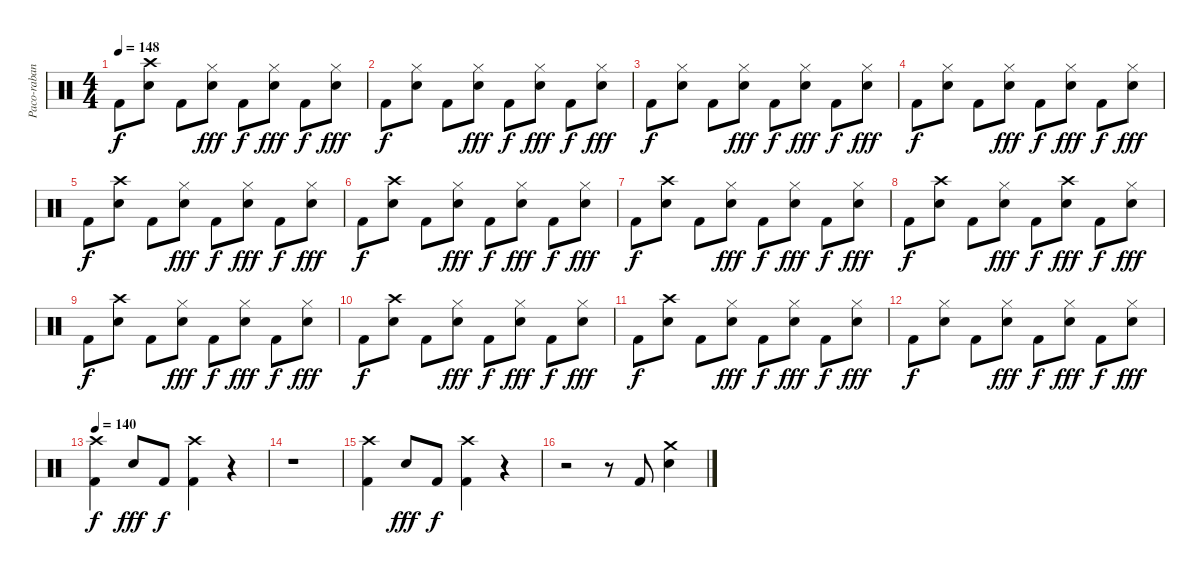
\track ("Paco-rabane" "Paco-raban") {instrument percussion}
\staff {score}
\articulation defaults
\ts (4 4)
\tempo 148
\clef neutral
\ks c "Kick (hit) 2".8{dy f}
("Crash high (hit)" "Snare (hit) 2").8 "Kick (hit) 2".8 ("Hi-Hat (closed)" "Snare (hit) 2").8{dy fff} "Kick (hit) 2".8{dy f} ("Hi-Hat (closed)" "Snare (hit) 2").8{dy fff} "Kick (hit) 2".8{dy f} ("Hi-Hat (closed)" "Snare (hit) 2").8{dy fff} |
"Kick (hit) 2".8{dy f} ("Hi-Hat (closed)" "Snare (hit) 2").8 "Kick (hit) 2".8 ("Hi-Hat (closed)" "Snare (hit) 2").8{dy fff} "Kick (hit) 2".8{dy f} ("Hi-Hat (closed)" "Snare (hit) 2").8{dy fff} "Kick (hit) 2".8{dy f} ("Hi-Hat (closed)" "Snare (hit) 2").8{dy fff} |
"Kick (hit) 2".8{dy f} ("Hi-Hat (closed)" "Snare (hit) 2").8 "Kick (hit) 2".8 ("Hi-Hat (closed)" "Snare (hit) 2").8{dy fff} "Kick (hit) 2".8{dy f} ("Hi-Hat (closed)" "Snare (hit) 2").8{dy fff} "Kick (hit) 2".8{dy f} ("Hi-Hat (closed)" "Snare (hit) 2").8{dy fff} |
"Kick (hit) 2".8{dy f} ("Hi-Hat (closed)" "Snare (hit) 2").8 "Kick (hit) 2".8 ("Hi-Hat (closed)" "Snare (hit) 2").8{dy fff} "Kick (hit) 2".8{dy f} ("Hi-Hat (closed)" "Snare (hit) 2").8{dy fff} "Kick (hit) 2".8{dy f} ("Hi-Hat (closed)" "Snare (hit) 2").8{dy fff} |
"Kick (hit) 2".8{dy f} ("Crash high (hit)" "Snare (hit) 2").8 "Kick (hit) 2".8 ("Hi-Hat (closed)" "Snare (hit) 2").8{dy fff} "Kick (hit) 2".8{dy f} ("Hi-Hat (closed)" "Snare (hit) 2").8{dy fff} "Kick (hit) 2".8{dy f} ("Hi-Hat (closed)" "Snare (hit) 2").8{dy fff} |
"Kick (hit) 2".8{dy f} ("Crash high (hit)" "Snare (hit) 2").8 "Kick (hit) 2".8 ("Hi-Hat (closed)" "Snare (hit) 2").8{dy fff} "Kick (hit) 2".8{dy f} ("Hi-Hat (closed)" "Snare (hit) 2").8{dy fff} "Kick (hit) 2".8{dy f} ("Hi-Hat (closed)" "Snare (hit) 2").8{dy fff} |
"Kick (hit) 2".8{dy f} ("Crash high (hit)" "Snare (hit) 2").8 "Kick (hit) 2".8 ("Hi-Hat (closed)" "Snare (hit) 2").8{dy fff} "Kick (hit) 2".8{dy f} ("Hi-Hat (closed)" "Snare (hit) 2").8{dy fff} "Kick (hit) 2".8{dy f} ("Hi-Hat (closed)" "Snare (hit) 2").8{dy fff} |
"Kick (hit) 2".8{dy f} ("Crash high (hit)" "Snare (hit) 2").8 "Kick (hit) 2".8 ("Hi-Hat (closed)" "Snare (hit) 2").8{dy fff} "Kick (hit) 2".8{dy f} ("Crash high (hit)" "Snare (hit) 2").8{dy fff} "Kick (hit) 2".8{dy f} ("Hi-Hat (closed)" "Snare (hit) 2").8{dy fff} |
"Kick (hit) 2".8{dy f} ("Crash high (hit)" "Snare (hit) 2").8 "Kick (hit) 2".8 ("Hi-Hat (closed)" "Snare (hit) 2").8{dy fff} "Kick (hit) 2".8{dy f} ("Hi-Hat (closed)" "Snare (hit) 2").8{dy fff} "Kick (hit) 2".8{dy f} ("Hi-Hat (closed)" "Snare (hit) 2").8{dy fff} |
"Kick (hit) 2".8{dy f} ("Crash high (hit)" "Snare (hit) 2").8 "Kick (hit) 2".8 ("Hi-Hat (closed)" "Snare (hit) 2").8{dy fff} "Kick (hit) 2".8{dy f} ("Hi-Hat (closed)" "Snare (hit) 2").8{dy fff} "Kick (hit) 2".8{dy f} ("Hi-Hat (closed)" "Snare (hit) 2").8{dy fff} |
"Kick (hit) 2".8{dy f} ("Crash high (hit)" "Snare (hit) 2").8 "Kick (hit) 2".8 ("Hi-Hat (closed)" "Snare (hit) 2").8{dy fff} "Kick (hit) 2".8{dy f} ("Hi-Hat (closed)" "Snare (hit) 2").8{dy fff} "Kick (hit) 2".8{dy f} ("Hi-Hat (closed)" "Snare (hit) 2").8{dy fff} |
"Kick (hit) 2".8{dy f} ("Hi-Hat (closed)" "Snare (hit) 2").8 "Kick (hit) 2".8 ("Hi-Hat (closed)" "Snare (hit) 2").8{dy fff} "Kick (hit) 2".8{dy f} ("Hi-Hat (closed)" "Snare (hit) 2").8{dy fff} "Kick (hit) 2".8{dy f} ("Hi-Hat (closed)" "Snare (hit) 2").8{dy fff} |
\tempo 140
("Crash high (hit)" "Kick (hit) 2").4{dy f} "Snare (hit) 2".8{dy fff} "Kick (hit) 2".8{dy f} ("Crash high (hit)" "Kick (hit) 2").4 r.4 |
r.1 |
("Crash high (hit)" "Kick (hit) 2").4 "Snare (hit) 2".8{dy fff} "Kick (hit) 2".8{dy f} ("Crash high (hit)" "Kick (hit) 2").4 r.4 |
r.2 r.8 "Kick (hit) 2".8 ("Crash medium (hit)" "Snare (hit) 2").4
